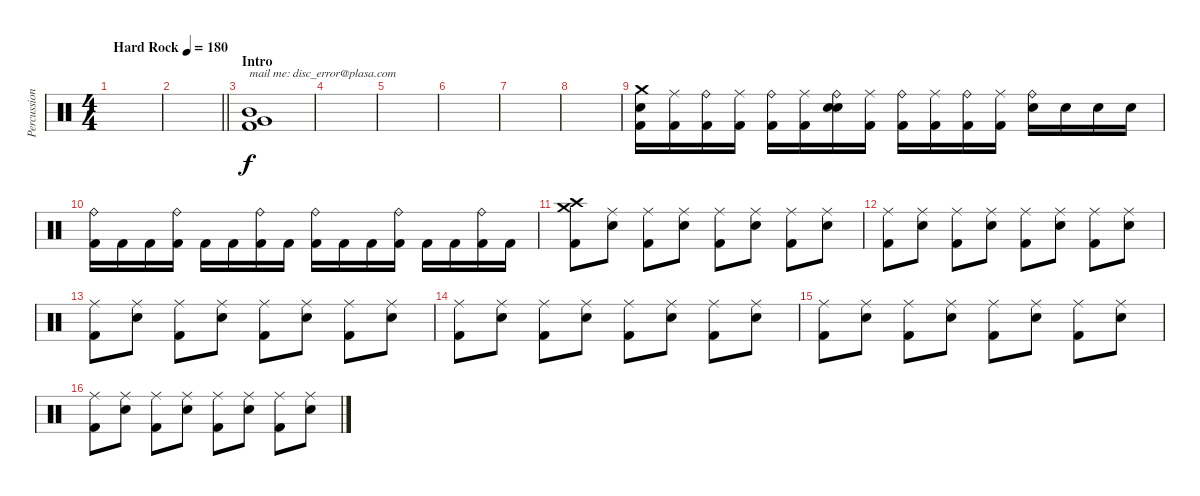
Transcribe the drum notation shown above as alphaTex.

\track ("Percussion" "Percussion") {instrument percussion}
\staff {score}
\articulation defaults
\ts (4 4)
\tempo (180 "Hard Rock")
\clef neutral
\ks c
|
\barLineRight lightlight
|
\section ("" "Intro")
("Very Low Tom (hit)" "Mid Tom (hit)" "Kick (hit) 2").1{txt "mail me: disc_error@plasa.com"} |
|
|
|
|
|
("Crash medium (hit)" "Electric Snare (hit)" "Kick (hit) 2").16 ("Ride (middle)" "Kick (hit) 2").16 ("Ride (bell)" "Kick (hit) 2").16 ("Ride (middle)" "Kick (hit) 2").16 ("Ride (bell)" "Kick (hit) 2").16 ("Ride (middle)" "Kick (hit) 2").16 ("Ride (bell)" "Electric Snare (hit)" "Snare (hit)").16 ("Ride (middle)" "Kick (hit) 2").16 ("Ride (bell)" "Kick (hit) 2").16 ("Ride (middle)" "Kick (hit) 2").16 ("Ride (bell)" "Kick (hit) 2").16 ("Ride (middle)" "Kick (hit) 2").16 ("Ride (bell)" "Electric Snare (hit)").16 "Electric Snare (hit)".16 "Electric Snare (hit)".16 "Electric Snare (hit)".16 |
("Ride (bell)" "Kick (hit) 2").16 "Kick (hit) 2".16 "Kick (hit) 2".16 ("Ride (bell)" "Kick (hit) 2").16 "Kick (hit) 2".16 "Kick (hit) 2".16 ("Ride (bell)" "Kick (hit) 2").16 "Kick (hit) 2".16 ("Ride (bell)" "Kick (hit) 2").16 "Kick (hit) 2".16 "Kick (hit) 2".16 ("Ride (bell)" "Kick (hit) 2").16 "Kick (hit) 2".16 "Kick (hit) 2".16 ("Ride (bell)" "Kick (hit) 2").16 "Kick (hit) 2".16 |
("Crash high (hit)" "Crash medium (hit)" "Kick (hit) 2").8 ("Ride (middle)" "Electric Snare (hit)").8 ("Ride (middle)" "Kick (hit) 2").8 ("Ride (middle)" "Electric Snare (hit)").8 ("Ride (middle)" "Kick (hit) 2").8 ("Ride (middle)" "Electric Snare (hit)").8 ("Ride (middle)" "Kick (hit) 2").8 ("Ride (middle)" "Electric Snare (hit)").8 |
("Ride (middle)" "Kick (hit) 2").8 ("Ride (middle)" "Electric Snare (hit)").8 ("Ride (middle)" "Kick (hit) 2").8 ("Ride (middle)" "Electric Snare (hit)").8 ("Ride (middle)" "Kick (hit) 2").8 ("Ride (middle)" "Electric Snare (hit)").8 ("Ride (middle)" "Kick (hit) 2").8 ("Ride (middle)" "Electric Snare (hit)").8 |
("Ride (middle)" "Kick (hit) 2").8 ("Ride (middle)" "Electric Snare (hit)").8 ("Ride (middle)" "Kick (hit) 2").8 ("Ride (middle)" "Electric Snare (hit)").8 ("Ride (middle)" "Kick (hit) 2").8 ("Ride (middle)" "Electric Snare (hit)").8 ("Ride (middle)" "Kick (hit) 2").8 ("Ride (middle)" "Electric Snare (hit)").8 |
("Ride (middle)" "Kick (hit) 2").8 ("Ride (middle)" "Electric Snare (hit)").8 ("Ride (middle)" "Kick (hit) 2").8 ("Ride (middle)" "Electric Snare (hit)").8 ("Ride (middle)" "Kick (hit) 2").8 ("Ride (middle)" "Electric Snare (hit)").8 ("Ride (middle)" "Kick (hit) 2").8 ("Ride (middle)" "Electric Snare (hit)").8 |
("Ride (middle)" "Kick (hit) 2").8 ("Ride (middle)" "Electric Snare (hit)").8 ("Ride (middle)" "Kick (hit) 2").8 ("Ride (middle)" "Electric Snare (hit)").8 ("Ride (middle)" "Kick (hit) 2").8 ("Ride (middle)" "Electric Snare (hit)").8 ("Ride (middle)" "Kick (hit) 2").8 ("Ride (middle)" "Electric Snare (hit)").8 |
("Ride (middle)" "Kick (hit) 2").8 ("Ride (middle)" "Electric Snare (hit)").8 ("Ride (middle)" "Kick (hit) 2").8 ("Ride (middle)" "Electric Snare (hit)").8 ("Ride (middle)" "Kick (hit) 2").8 ("Ride (middle)" "Electric Snare (hit)").8 ("Ride (middle)" "Kick (hit) 2").8 ("Ride (middle)" "Electric Snare (hit)").8
